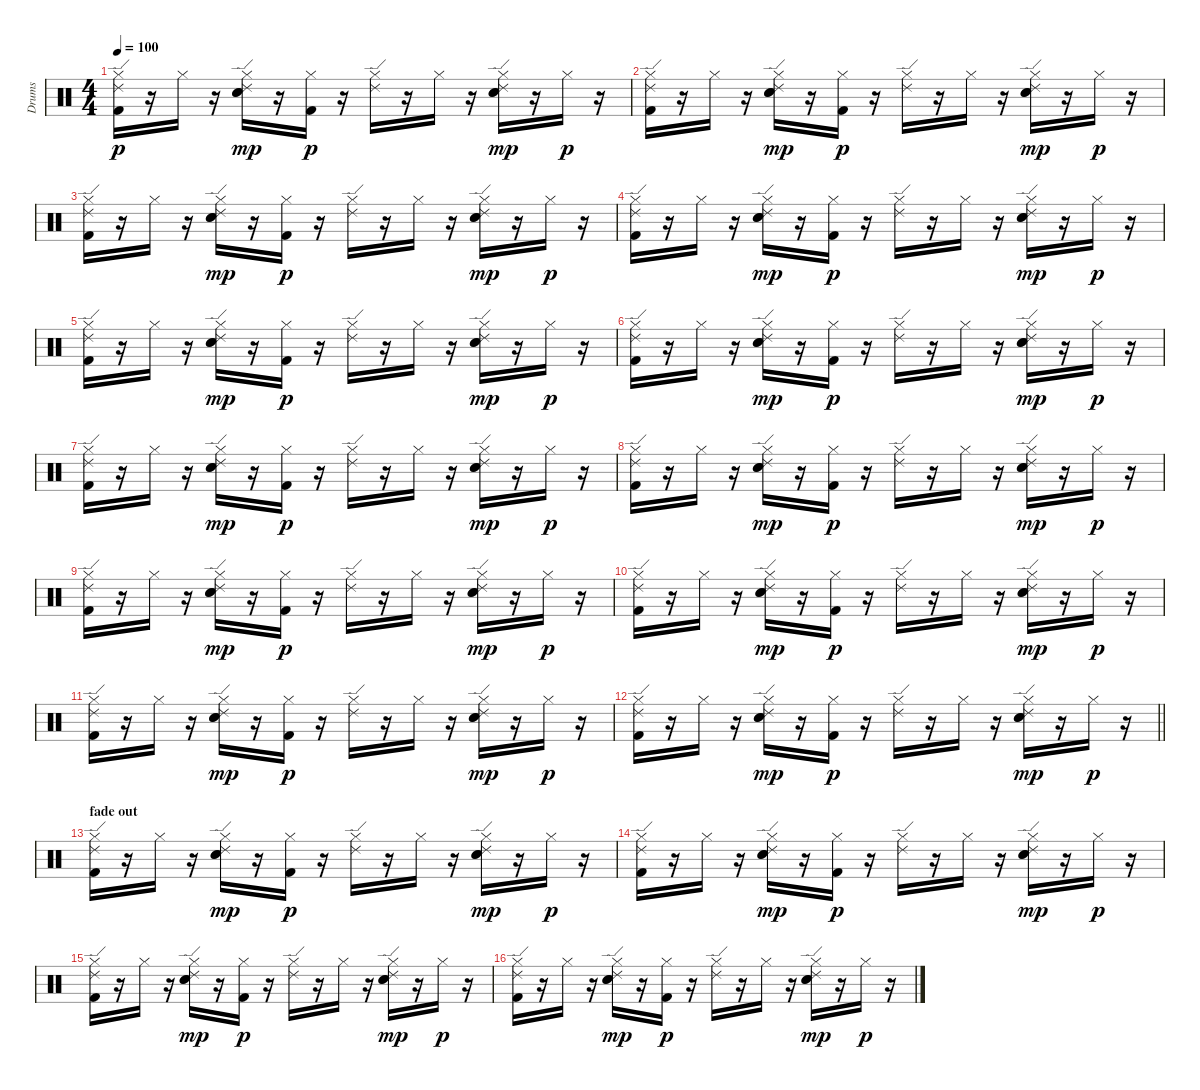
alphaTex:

\track ("Drums" "Drums") {instrument percussion}
\staff {score}
\articulation defaults
\ts (4 4)
\tempo 100
\clef neutral
\ks c
("Hi-Hat (closed)" "Ride (edge) 2" "Kick (hit) 2").16{dy p} r.16 "Hi-Hat (closed)".16 r.16 ("Hi-Hat (closed)" "Ride (edge) 2" "Electric Snare (hit)" "Snare (hit) 2").16{dy mp} r.16 ("Hi-Hat (closed)" "Kick (hit) 2").16{dy p} r.16 ("Hi-Hat (closed)" "Ride (edge) 2").16 r.16 "Hi-Hat (closed)".16 r.16 ("Hi-Hat (closed)" "Ride (edge) 2" "Electric Snare (hit)" "Snare (hit) 2").16{dy mp} r.16 "Hi-Hat (closed)".16{dy p} r.16 |
("Hi-Hat (closed)" "Ride (edge) 2" "Kick (hit) 2").16 r.16 "Hi-Hat (closed)".16 r.16 ("Hi-Hat (closed)" "Ride (edge) 2" "Electric Snare (hit)" "Snare (hit) 2").16{dy mp} r.16 ("Hi-Hat (closed)" "Kick (hit) 2").16{dy p} r.16 ("Hi-Hat (closed)" "Ride (edge) 2").16 r.16 "Hi-Hat (closed)".16 r.16 ("Hi-Hat (closed)" "Ride (edge) 2" "Electric Snare (hit)" "Snare (hit) 2").16{dy mp} r.16 "Hi-Hat (closed)".16{dy p} r.16 |
("Hi-Hat (closed)" "Ride (edge) 2" "Kick (hit) 2").16 r.16 "Hi-Hat (closed)".16 r.16 ("Hi-Hat (closed)" "Ride (edge) 2" "Electric Snare (hit)" "Snare (hit) 2").16{dy mp} r.16 ("Hi-Hat (closed)" "Kick (hit) 2").16{dy p} r.16 ("Hi-Hat (closed)" "Ride (edge) 2").16 r.16 "Hi-Hat (closed)".16 r.16 ("Hi-Hat (closed)" "Ride (edge) 2" "Electric Snare (hit)" "Snare (hit) 2").16{dy mp} r.16 "Hi-Hat (closed)".16{dy p} r.16 |
("Hi-Hat (closed)" "Ride (edge) 2" "Kick (hit) 2").16 r.16 "Hi-Hat (closed)".16 r.16 ("Hi-Hat (closed)" "Ride (edge) 2" "Electric Snare (hit)" "Snare (hit) 2").16{dy mp} r.16 ("Hi-Hat (closed)" "Kick (hit) 2").16{dy p} r.16 ("Hi-Hat (closed)" "Ride (edge) 2").16 r.16 "Hi-Hat (closed)".16 r.16 ("Hi-Hat (closed)" "Ride (edge) 2" "Electric Snare (hit)" "Snare (hit) 2").16{dy mp} r.16 "Hi-Hat (closed)".16{dy p} r.16 |
("Hi-Hat (closed)" "Ride (edge) 2" "Kick (hit) 2").16 r.16 "Hi-Hat (closed)".16 r.16 ("Hi-Hat (closed)" "Ride (edge) 2" "Electric Snare (hit)" "Snare (hit) 2").16{dy mp} r.16 ("Hi-Hat (closed)" "Kick (hit) 2").16{dy p} r.16 ("Hi-Hat (closed)" "Ride (edge) 2").16 r.16 "Hi-Hat (closed)".16 r.16 ("Hi-Hat (closed)" "Ride (edge) 2" "Electric Snare (hit)" "Snare (hit) 2").16{dy mp} r.16 "Hi-Hat (closed)".16{dy p} r.16 |
("Hi-Hat (closed)" "Ride (edge) 2" "Kick (hit) 2").16 r.16 "Hi-Hat (closed)".16 r.16 ("Hi-Hat (closed)" "Ride (edge) 2" "Electric Snare (hit)" "Snare (hit) 2").16{dy mp} r.16 ("Hi-Hat (closed)" "Kick (hit) 2").16{dy p} r.16 ("Hi-Hat (closed)" "Ride (edge) 2").16 r.16 "Hi-Hat (closed)".16 r.16 ("Hi-Hat (closed)" "Ride (edge) 2" "Electric Snare (hit)" "Snare (hit) 2").16{dy mp} r.16 "Hi-Hat (closed)".16{dy p} r.16 |
("Hi-Hat (closed)" "Ride (edge) 2" "Kick (hit) 2").16 r.16 "Hi-Hat (closed)".16 r.16 ("Hi-Hat (closed)" "Ride (edge) 2" "Electric Snare (hit)" "Snare (hit) 2").16{dy mp} r.16 ("Hi-Hat (closed)" "Kick (hit) 2").16{dy p} r.16 ("Hi-Hat (closed)" "Ride (edge) 2").16 r.16 "Hi-Hat (closed)".16 r.16 ("Hi-Hat (closed)" "Ride (edge) 2" "Electric Snare (hit)" "Snare (hit) 2").16{dy mp} r.16 "Hi-Hat (closed)".16{dy p} r.16 |
("Hi-Hat (closed)" "Ride (edge) 2" "Kick (hit) 2").16 r.16 "Hi-Hat (closed)".16 r.16 ("Hi-Hat (closed)" "Ride (edge) 2" "Electric Snare (hit)" "Snare (hit) 2").16{dy mp} r.16 ("Hi-Hat (closed)" "Kick (hit) 2").16{dy p} r.16 ("Hi-Hat (closed)" "Ride (edge) 2").16 r.16 "Hi-Hat (closed)".16 r.16 ("Hi-Hat (closed)" "Ride (edge) 2" "Electric Snare (hit)" "Snare (hit) 2").16{dy mp} r.16 "Hi-Hat (closed)".16{dy p} r.16 |
("Hi-Hat (closed)" "Ride (edge) 2" "Kick (hit) 2").16 r.16 "Hi-Hat (closed)".16 r.16 ("Hi-Hat (closed)" "Ride (edge) 2" "Electric Snare (hit)" "Snare (hit) 2").16{dy mp} r.16 ("Hi-Hat (closed)" "Kick (hit) 2").16{dy p} r.16 ("Hi-Hat (closed)" "Ride (edge) 2").16 r.16 "Hi-Hat (closed)".16 r.16 ("Hi-Hat (closed)" "Ride (edge) 2" "Electric Snare (hit)" "Snare (hit) 2").16{dy mp} r.16 "Hi-Hat (closed)".16{dy p} r.16 |
("Hi-Hat (closed)" "Ride (edge) 2" "Kick (hit) 2").16 r.16 "Hi-Hat (closed)".16 r.16 ("Hi-Hat (closed)" "Ride (edge) 2" "Electric Snare (hit)" "Snare (hit) 2").16{dy mp} r.16 ("Hi-Hat (closed)" "Kick (hit) 2").16{dy p} r.16 ("Hi-Hat (closed)" "Ride (edge) 2").16 r.16 "Hi-Hat (closed)".16 r.16 ("Hi-Hat (closed)" "Ride (edge) 2" "Electric Snare (hit)" "Snare (hit) 2").16{dy mp} r.16 "Hi-Hat (closed)".16{dy p} r.16 |
("Hi-Hat (closed)" "Ride (edge) 2" "Kick (hit) 2").16 r.16 "Hi-Hat (closed)".16 r.16 ("Hi-Hat (closed)" "Ride (edge) 2" "Electric Snare (hit)" "Snare (hit) 2").16{dy mp} r.16 ("Hi-Hat (closed)" "Kick (hit) 2").16{dy p} r.16 ("Hi-Hat (closed)" "Ride (edge) 2").16 r.16 "Hi-Hat (closed)".16 r.16 ("Hi-Hat (closed)" "Ride (edge) 2" "Electric Snare (hit)" "Snare (hit) 2").16{dy mp} r.16 "Hi-Hat (closed)".16{dy p} r.16 |
\barLineRight lightlight
("Hi-Hat (closed)" "Ride (edge) 2" "Kick (hit) 2").16 r.16 "Hi-Hat (closed)".16 r.16 ("Hi-Hat (closed)" "Ride (edge) 2" "Electric Snare (hit)" "Snare (hit) 2").16{dy mp} r.16 ("Hi-Hat (closed)" "Kick (hit) 2").16{dy p} r.16 ("Hi-Hat (closed)" "Ride (edge) 2").16 r.16 "Hi-Hat (closed)".16 r.16 ("Hi-Hat (closed)" "Ride (edge) 2" "Electric Snare (hit)" "Snare (hit) 2").16{dy mp} r.16 "Hi-Hat (closed)".16{dy p} r.16 |
\section ("" "fade out")
("Hi-Hat (closed)" "Ride (edge) 2" "Kick (hit) 2").16 r.16 "Hi-Hat (closed)".16 r.16 ("Hi-Hat (closed)" "Ride (edge) 2" "Electric Snare (hit)" "Snare (hit) 2").16{dy mp} r.16 ("Hi-Hat (closed)" "Kick (hit) 2").16{dy p} r.16 ("Hi-Hat (closed)" "Ride (edge) 2").16 r.16 "Hi-Hat (closed)".16 r.16 ("Hi-Hat (closed)" "Ride (edge) 2" "Electric Snare (hit)" "Snare (hit) 2").16{dy mp} r.16 "Hi-Hat (closed)".16{dy p} r.16 |
("Hi-Hat (closed)" "Ride (edge) 2" "Kick (hit) 2").16 r.16 "Hi-Hat (closed)".16 r.16 ("Hi-Hat (closed)" "Ride (edge) 2" "Electric Snare (hit)" "Snare (hit) 2").16{dy mp} r.16 ("Hi-Hat (closed)" "Kick (hit) 2").16{dy p} r.16 ("Hi-Hat (closed)" "Ride (edge) 2").16 r.16 "Hi-Hat (closed)".16 r.16 ("Hi-Hat (closed)" "Ride (edge) 2" "Electric Snare (hit)" "Snare (hit) 2").16{dy mp} r.16 "Hi-Hat (closed)".16{dy p} r.16 |
("Hi-Hat (closed)" "Ride (edge) 2" "Kick (hit) 2").16 r.16 "Hi-Hat (closed)".16 r.16 ("Hi-Hat (closed)" "Ride (edge) 2" "Electric Snare (hit)" "Snare (hit) 2").16{dy mp} r.16 ("Hi-Hat (closed)" "Kick (hit) 2").16{dy p} r.16 ("Hi-Hat (closed)" "Ride (edge) 2").16 r.16 "Hi-Hat (closed)".16 r.16 ("Hi-Hat (closed)" "Ride (edge) 2" "Electric Snare (hit)" "Snare (hit) 2").16{dy mp} r.16 "Hi-Hat (closed)".16{dy p} r.16 |
("Hi-Hat (closed)" "Ride (edge) 2" "Kick (hit) 2").16 r.16 "Hi-Hat (closed)".16 r.16 ("Hi-Hat (closed)" "Ride (edge) 2" "Electric Snare (hit)" "Snare (hit) 2").16{dy mp} r.16 ("Hi-Hat (closed)" "Kick (hit) 2").16{dy p} r.16 ("Hi-Hat (closed)" "Ride (edge) 2").16 r.16 "Hi-Hat (closed)".16 r.16 ("Hi-Hat (closed)" "Ride (edge) 2" "Electric Snare (hit)" "Snare (hit) 2").16{dy mp} r.16 "Hi-Hat (closed)".16{dy p} r.16
